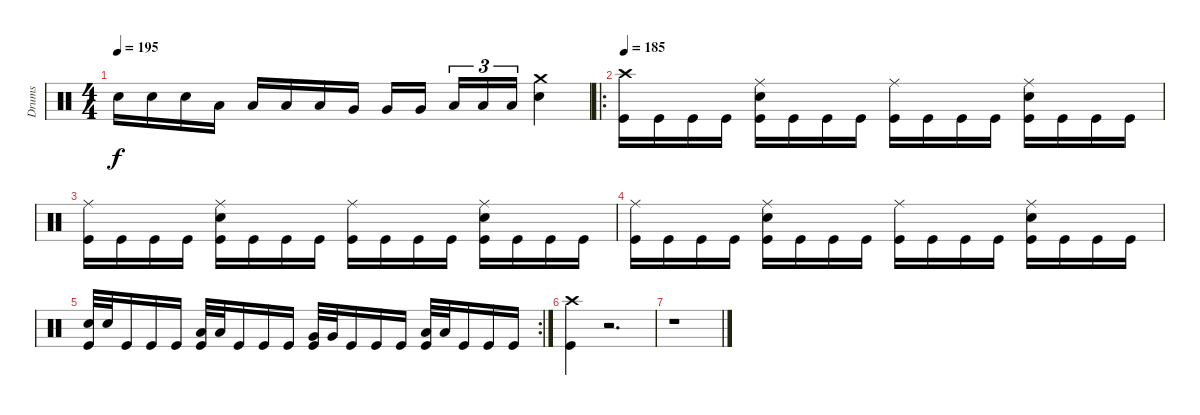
\track ("Drums" "Drums") {instrument percussion}
\staff {score}
\articulation defaults
\ts (4 4)
\tempo 195
\clef neutral
\ks c "Electric Snare (hit)".16{dy f} "Electric Snare (hit)".16 "Electric Snare (hit)".16 "Low Tom (hit)".16 "Low Tom (hit)".16 "Low Tom (hit)".16 "Low Tom (hit)".16 "Very Low Tom (hit)".16 "Very Low Tom (hit)".16 "Very Low Tom (hit)".16 "Low Floor Tom (hit)".16{tu (3 2)} "Low Floor Tom (hit)".16{tu (3 2)} "Low Floor Tom (hit)".16{tu (3 2)}
("Crash medium (hit)" "Electric Snare (hit)").4 |
\ro
\tempo 185
("Crash high (hit)" "Kick (hit)").16 "Kick (hit)".16 "Kick (hit)".16 "Kick (hit)".16 ("Ride (middle)" "Electric Snare (hit)" "Kick (hit)").16 "Kick (hit)".16 "Kick (hit)".16 "Kick (hit)".16 ("Ride (middle)" "Kick (hit)").16 "Kick (hit)".16 "Kick (hit)".16 "Kick (hit)".16 ("Ride (middle)" "Electric Snare (hit)" "Kick (hit)").16 "Kick (hit)".16 "Kick (hit)".16 "Kick (hit)".16 |
("Ride (middle)" "Kick (hit)").16 "Kick (hit)".16 "Kick (hit)".16 "Kick (hit)".16 ("Ride (middle)" "Electric Snare (hit)" "Kick (hit)").16 "Kick (hit)".16 "Kick (hit)".16 "Kick (hit)".16 ("Ride (middle)" "Kick (hit)").16 "Kick (hit)".16 "Kick (hit)".16 "Kick (hit)".16 ("Ride (middle)" "Electric Snare (hit)" "Kick (hit)").16 "Kick (hit)".16 "Kick (hit)".16 "Kick (hit)".16 |
("Ride (middle)" "Kick (hit)").16 "Kick (hit)".16 "Kick (hit)".16 "Kick (hit)".16 ("Ride (middle)" "Electric Snare (hit)" "Kick (hit)").16 "Kick (hit)".16 "Kick (hit)".16 "Kick (hit)".16 ("Ride (middle)" "Kick (hit)").16 "Kick (hit)".16 "Kick (hit)".16 "Kick (hit)".16 ("Ride (middle)" "Electric Snare (hit)" "Kick (hit)").16 "Kick (hit)".16 "Kick (hit)".16 "Kick (hit)".16 |
\rc 2
("Electric Snare (hit)" "Kick (hit)").32 "Electric Snare (hit)".32 "Kick (hit)".16 "Kick (hit)".16 "Kick (hit)".16 ("Low Tom (hit)" "Kick (hit)").32 "Low Tom (hit)".32 "Kick (hit)".16 "Kick (hit)".16 "Kick (hit)".16 ("Very Low Tom (hit)" "Kick (hit)").32 "Very Low Tom (hit)".32 "Kick (hit)".16 "Kick (hit)".16 "Kick (hit)".16 ("Low Floor Tom (hit)" "Kick (hit)").32 "Low Floor Tom (hit)".32 "Kick (hit)".16 "Kick (hit)".16 "Kick (hit)".16 |
("Crash high (hit)" "Kick (hit)").4 r.2{d volume 0} |
r.1
